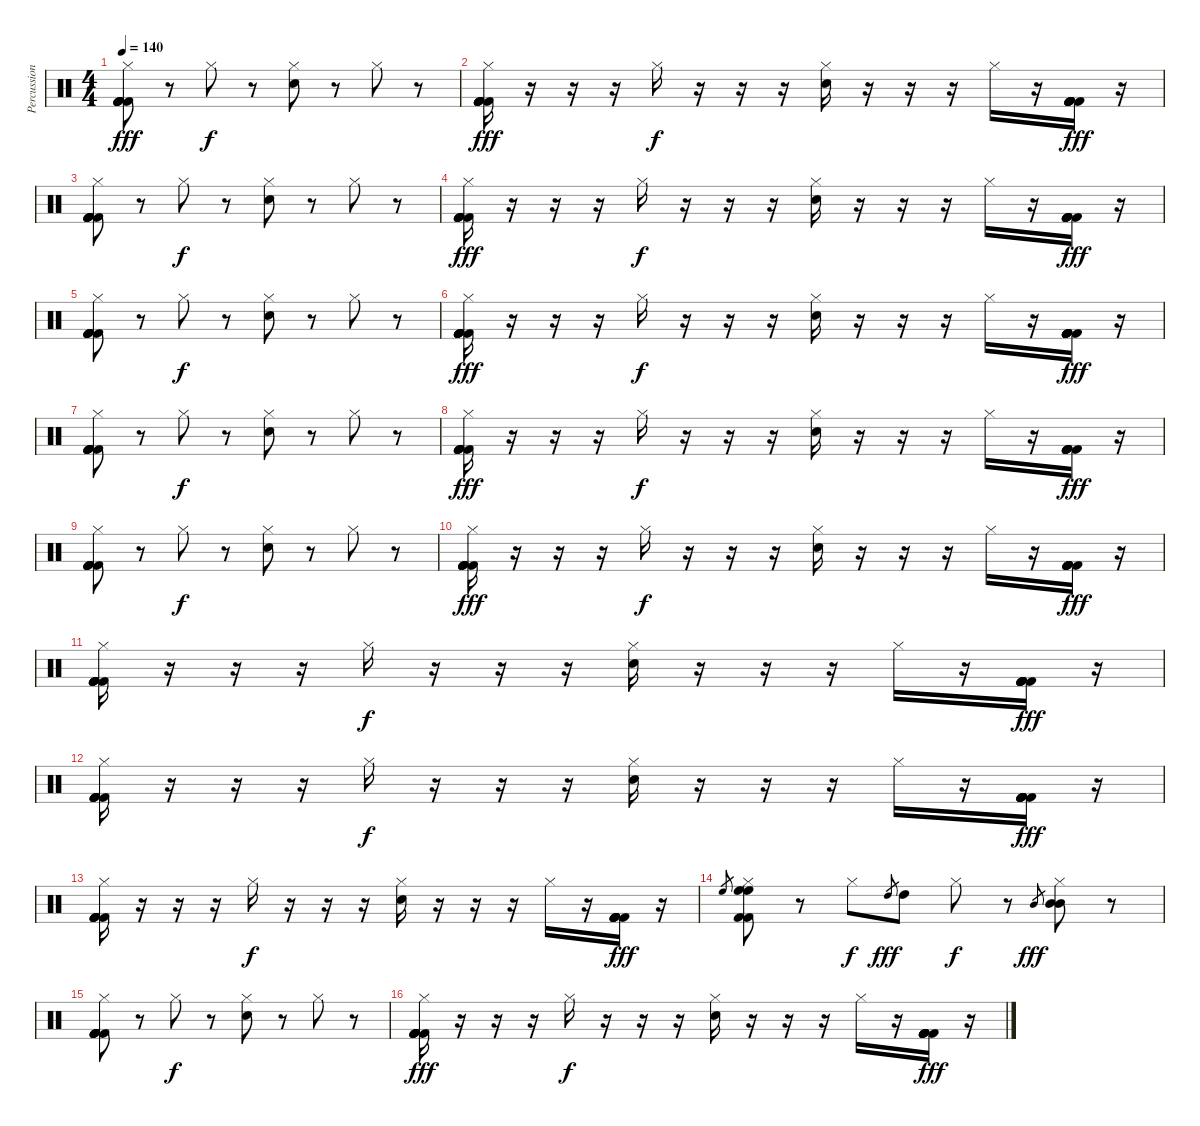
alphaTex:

\track ("Percussions" "Percussion") {instrument percussion}
\staff {score}
\articulation defaults
\ts (4 4)
\tempo 140
\clef neutral
\ks c
("Hi-Hat (closed)" "Kick (hit) 2" "Kick (hit) 2" "Kick (hit) 2" "Kick (hit) 2" "Kick (hit) 2").8{dy fff} r.8 "Hi-Hat (closed)".8{dy f} r.8 ("Hi-Hat (closed)" "Snare (hit) 2").8 r.8 "Hi-Hat (closed)".8 r.8 |
("Hi-Hat (closed)" "Kick (hit) 2" "Kick (hit) 2" "Kick (hit) 2" "Kick (hit) 2" "Kick (hit) 2").16{dy fff} r.16 r.16 r.16 "Hi-Hat (closed)".16{dy f} r.16 r.16 r.16 ("Hi-Hat (closed)" "Snare (hit) 2").16 r.16 r.16 r.16 "Hi-Hat (closed)".16 r.16 ("Kick (hit) 2" "Kick (hit) 2" "Kick (hit) 2" "Kick (hit) 2" "Kick (hit) 2" "Kick (hit) 2").16{dy fff} r.16 |
("Hi-Hat (closed)" "Kick (hit) 2" "Kick (hit) 2" "Kick (hit) 2" "Kick (hit) 2" "Kick (hit) 2").8 r.8 "Hi-Hat (closed)".8{dy f} r.8 ("Hi-Hat (closed)" "Snare (hit) 2").8 r.8 "Hi-Hat (closed)".8 r.8 |
("Hi-Hat (closed)" "Kick (hit) 2" "Kick (hit) 2" "Kick (hit) 2" "Kick (hit) 2" "Kick (hit) 2").16{dy fff} r.16 r.16 r.16 "Hi-Hat (closed)".16{dy f} r.16 r.16 r.16 ("Hi-Hat (closed)" "Snare (hit) 2").16 r.16 r.16 r.16 "Hi-Hat (closed)".16 r.16 ("Kick (hit) 2" "Kick (hit) 2" "Kick (hit) 2" "Kick (hit) 2" "Kick (hit) 2" "Kick (hit) 2").16{dy fff} r.16 |
("Hi-Hat (closed)" "Kick (hit) 2" "Kick (hit) 2" "Kick (hit) 2" "Kick (hit) 2" "Kick (hit) 2").8 r.8 "Hi-Hat (closed)".8{dy f} r.8 ("Hi-Hat (closed)" "Snare (hit) 2").8 r.8 "Hi-Hat (closed)".8 r.8 |
("Hi-Hat (closed)" "Kick (hit) 2" "Kick (hit) 2" "Kick (hit) 2" "Kick (hit) 2" "Kick (hit) 2").16{dy fff} r.16 r.16 r.16 "Hi-Hat (closed)".16{dy f} r.16 r.16 r.16 ("Hi-Hat (closed)" "Snare (hit) 2").16 r.16 r.16 r.16 "Hi-Hat (closed)".16 r.16 ("Kick (hit) 2" "Kick (hit) 2" "Kick (hit) 2" "Kick (hit) 2" "Kick (hit) 2" "Kick (hit) 2").16{dy fff} r.16 |
("Hi-Hat (closed)" "Kick (hit) 2" "Kick (hit) 2" "Kick (hit) 2" "Kick (hit) 2" "Kick (hit) 2").8 r.8 "Hi-Hat (closed)".8{dy f} r.8 ("Hi-Hat (closed)" "Snare (hit) 2").8 r.8 "Hi-Hat (closed)".8 r.8 |
("Hi-Hat (closed)" "Kick (hit) 2" "Kick (hit) 2" "Kick (hit) 2" "Kick (hit) 2" "Kick (hit) 2").16{dy fff} r.16 r.16 r.16 "Hi-Hat (closed)".16{dy f} r.16 r.16 r.16 ("Hi-Hat (closed)" "Snare (hit) 2").16 r.16 r.16 r.16 "Hi-Hat (closed)".16 r.16 ("Kick (hit) 2" "Kick (hit) 2" "Kick (hit) 2" "Kick (hit) 2" "Kick (hit) 2" "Kick (hit) 2").16{dy fff} r.16 |
("Hi-Hat (closed)" "Kick (hit) 2" "Kick (hit) 2" "Kick (hit) 2" "Kick (hit) 2" "Kick (hit) 2").8 r.8 "Hi-Hat (closed)".8{dy f} r.8 ("Hi-Hat (closed)" "Snare (hit) 2").8 r.8 "Hi-Hat (closed)".8 r.8 |
("Hi-Hat (closed)" "Kick (hit) 2" "Kick (hit) 2" "Kick (hit) 2" "Kick (hit) 2" "Kick (hit) 2").16{dy fff} r.16 r.16 r.16 "Hi-Hat (closed)".16{dy f} r.16 r.16 r.16 ("Hi-Hat (closed)" "Snare (hit) 2").16 r.16 r.16 r.16 "Hi-Hat (closed)".16 r.16 ("Kick (hit) 2" "Kick (hit) 2" "Kick (hit) 2" "Kick (hit) 2" "Kick (hit) 2" "Kick (hit) 2").16{dy fff} r.16 |
("Hi-Hat (closed)" "Kick (hit) 2" "Kick (hit) 2" "Kick (hit) 2" "Kick (hit) 2" "Kick (hit) 2").16 r.16 r.16 r.16 "Hi-Hat (closed)".16{dy f} r.16 r.16 r.16 ("Hi-Hat (closed)" "Snare (hit) 2").16 r.16 r.16 r.16 "Hi-Hat (closed)".16 r.16 ("Kick (hit) 2" "Kick (hit) 2" "Kick (hit) 2" "Kick (hit) 2" "Kick (hit) 2" "Kick (hit) 2").16{dy fff} r.16 |
("Hi-Hat (closed)" "Kick (hit) 2" "Kick (hit) 2" "Kick (hit) 2" "Kick (hit) 2" "Kick (hit) 2").16 r.16 r.16 r.16 "Hi-Hat (closed)".16{dy f} r.16 r.16 r.16 ("Hi-Hat (closed)" "Snare (hit) 2").16 r.16 r.16 r.16 "Hi-Hat (closed)".16 r.16 ("Kick (hit) 2" "Kick (hit) 2" "Kick (hit) 2" "Kick (hit) 2" "Kick (hit) 2" "Kick (hit) 2").16{dy fff} r.16 |
("Hi-Hat (closed)" "Kick (hit) 2" "Kick (hit) 2" "Kick (hit) 2" "Kick (hit) 2" "Kick (hit) 2").16 r.16 r.16 r.16 "Hi-Hat (closed)".16{dy f} r.16 r.16 r.16 ("Hi-Hat (closed)" "Snare (hit) 2").16 r.16 r.16 r.16 "Hi-Hat (closed)".16 r.16 ("Kick (hit) 2" "Kick (hit) 2" "Kick (hit) 2" "Kick (hit) 2" "Kick (hit) 2" "Kick (hit) 2").16{dy fff} r.16 |
"High Floor Tom (hit)".8{gr} ("Hi-Hat (closed)" "High Floor Tom (hit)" "High Floor Tom (hit)" "Kick (hit) 2" "Kick (hit) 2").8 r.8 "Hi-Hat (closed)".8{dy f} "High Tom (hit)".8{gr dy fff} "High Tom (hit)".8 "Hi-Hat (closed)".8{dy f} r.8 "Mid Tom (hit)".8{gr dy fff} ("Hi-Hat (closed)" "Mid Tom (hit)" "Mid Tom (hit)").8 r.8 |
("Hi-Hat (closed)" "Kick (hit) 2" "Kick (hit) 2" "Kick (hit) 2" "Kick (hit) 2" "Kick (hit) 2").8 r.8 "Hi-Hat (closed)".8{dy f} r.8 ("Hi-Hat (closed)" "Snare (hit) 2").8 r.8 "Hi-Hat (closed)".8 r.8 |
("Hi-Hat (closed)" "Kick (hit) 2" "Kick (hit) 2" "Kick (hit) 2" "Kick (hit) 2" "Kick (hit) 2").16{dy fff} r.16 r.16 r.16 "Hi-Hat (closed)".16{dy f} r.16 r.16 r.16 ("Hi-Hat (closed)" "Snare (hit) 2").16 r.16 r.16 r.16 "Hi-Hat (closed)".16 r.16 ("Kick (hit) 2" "Kick (hit) 2" "Kick (hit) 2" "Kick (hit) 2" "Kick (hit) 2" "Kick (hit) 2").16{dy fff} r.16
